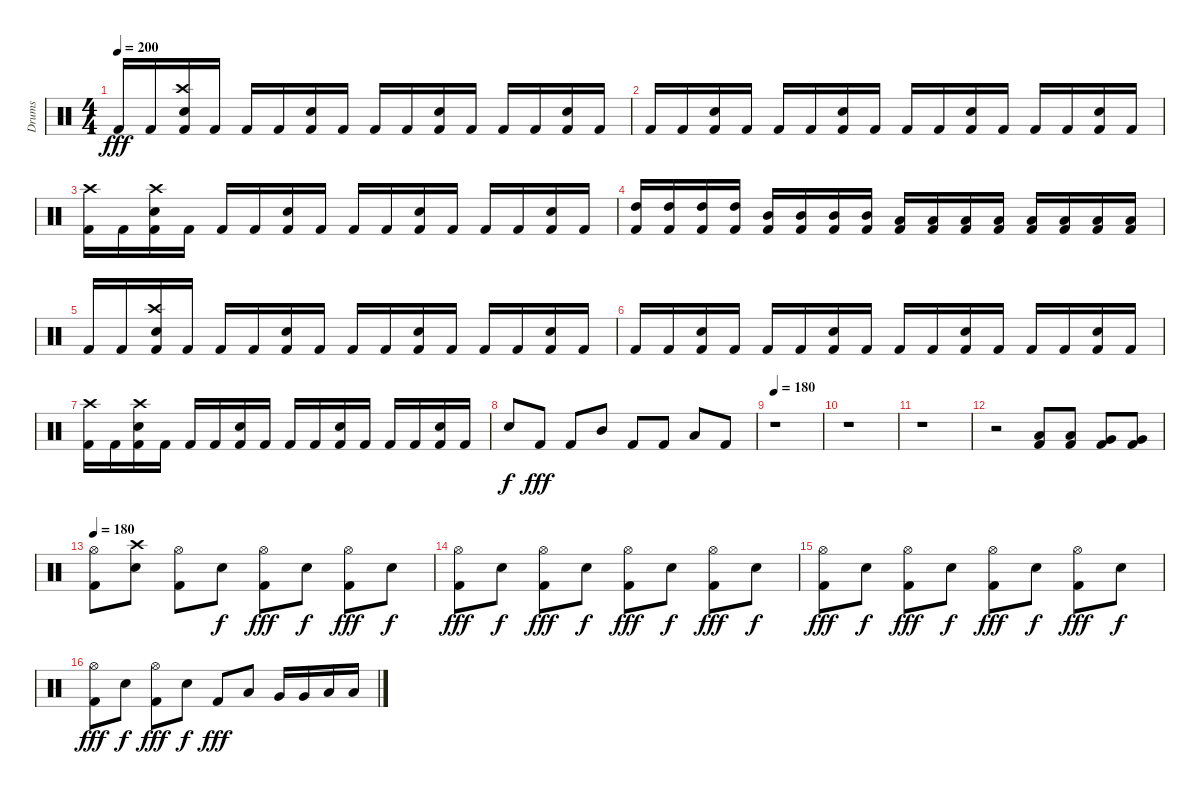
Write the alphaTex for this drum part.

\track ("Drums" "Drums") {instrument percussion}
\staff {score}
\articulation defaults
\ts (4 4)
\tempo 200
\clef neutral
\ks c "Kick (hit) 2".16{dy fff} "Kick (hit) 2".16
("Crash high (hit)" "Snare (hit) 2" "Kick (hit) 2").16 "Kick (hit) 2".16 "Kick (hit) 2".16 "Kick (hit) 2".16 ("Snare (hit) 2" "Kick (hit) 2").16 "Kick (hit) 2".16 "Kick (hit) 2".16 "Kick (hit) 2".16 ("Snare (hit) 2" "Kick (hit) 2").16 "Kick (hit) 2".16 "Kick (hit) 2".16 "Kick (hit) 2".16 ("Snare (hit) 2" "Kick (hit) 2").16 "Kick (hit) 2".16 |
"Kick (hit) 2".16 "Kick (hit) 2".16 ("Snare (hit) 2" "Kick (hit) 2").16 "Kick (hit) 2".16 "Kick (hit) 2".16 "Kick (hit) 2".16 ("Snare (hit) 2" "Kick (hit) 2").16 "Kick (hit) 2".16 "Kick (hit) 2".16 "Kick (hit) 2".16 ("Snare (hit) 2" "Kick (hit) 2").16 "Kick (hit) 2".16 "Kick (hit) 2".16 "Kick (hit) 2".16 ("Snare (hit) 2" "Kick (hit) 2").16 "Kick (hit) 2".16 |
("Crash high (hit)" "Kick (hit) 2").16 "Kick (hit) 2".16 ("Crash high (hit)" "Snare (hit) 2" "Kick (hit) 2").16 "Kick (hit) 2".16 "Kick (hit) 2".16 "Kick (hit) 2".16 ("Snare (hit) 2" "Kick (hit) 2").16 "Kick (hit) 2".16 "Kick (hit) 2".16 "Kick (hit) 2".16 ("Snare (hit) 2" "Kick (hit) 2").16 "Kick (hit) 2".16 "Kick (hit) 2".16 "Kick (hit) 2".16 ("Snare (hit) 2" "Kick (hit) 2").16 "Kick (hit) 2".16 |
("High Tom (hit)" "Kick (hit) 2").16 ("High Tom (hit)" "Kick (hit) 2").16 ("High Tom (hit)" "Kick (hit) 2").16 ("High Tom (hit)" "Kick (hit) 2").16 ("Mid Tom (hit)" "Kick (hit) 2").16 ("Mid Tom (hit)" "Kick (hit) 2").16 ("Mid Tom (hit)" "Kick (hit) 2").16 ("Mid Tom (hit)" "Kick (hit) 2").16 ("Low Tom (hit)" "Kick (hit) 2").16 ("Low Tom (hit)" "Kick (hit) 2").16 ("Low Tom (hit)" "Kick (hit) 2").16 ("Low Tom (hit)" "Kick (hit) 2").16 ("Low Floor Tom (hit)" "Kick (hit) 2").16 ("Low Floor Tom (hit)" "Kick (hit) 2").16 ("Low Floor Tom (hit)" "Kick (hit) 2").16 ("Low Floor Tom (hit)" "Kick (hit) 2").16 |
"Kick (hit) 2".16 "Kick (hit) 2".16 ("Crash high (hit)" "Snare (hit) 2" "Kick (hit) 2").16 "Kick (hit) 2".16 "Kick (hit) 2".16 "Kick (hit) 2".16 ("Snare (hit) 2" "Kick (hit) 2").16 "Kick (hit) 2".16 "Kick (hit) 2".16 "Kick (hit) 2".16 ("Snare (hit) 2" "Kick (hit) 2").16 "Kick (hit) 2".16 "Kick (hit) 2".16 "Kick (hit) 2".16 ("Snare (hit) 2" "Kick (hit) 2").16 "Kick (hit) 2".16 |
"Kick (hit) 2".16 "Kick (hit) 2".16 ("Snare (hit) 2" "Kick (hit) 2").16 "Kick (hit) 2".16 "Kick (hit) 2".16 "Kick (hit) 2".16 ("Snare (hit) 2" "Kick (hit) 2").16 "Kick (hit) 2".16 "Kick (hit) 2".16 "Kick (hit) 2".16 ("Snare (hit) 2" "Kick (hit) 2").16 "Kick (hit) 2".16 "Kick (hit) 2".16 "Kick (hit) 2".16 ("Snare (hit) 2" "Kick (hit) 2").16 "Kick (hit) 2".16 |
("Crash high (hit)" "Kick (hit) 2").16 "Kick (hit) 2".16 ("Crash high (hit)" "Snare (hit) 2" "Kick (hit) 2").16 "Kick (hit) 2".16 "Kick (hit) 2".16 "Kick (hit) 2".16 ("Snare (hit) 2" "Kick (hit) 2").16 "Kick (hit) 2".16 "Kick (hit) 2".16 "Kick (hit) 2".16 ("Snare (hit) 2" "Kick (hit) 2").16 "Kick (hit) 2".16 "Kick (hit) 2".16 "Kick (hit) 2".16 ("Snare (hit) 2" "Kick (hit) 2").16 "Kick (hit) 2".16 |
"Snare (hit) 2".8{dy f} "Kick (hit) 2".8{dy fff} "Kick (hit) 2".8 "Mid Tom (hit)".8 "Kick (hit) 2".8 "Kick (hit) 2".8 "Low Tom (hit)".8 "Kick (hit) 2".8 |
\tempo 180
r.1 |
r.1 |
r.1 |
r.2 ("Low Tom (hit)" "Kick (hit) 2").8 ("Low Tom (hit)" "Kick (hit) 2").8 ("Very Low Tom (hit)" "Kick (hit) 2").8 ("Very Low Tom (hit)" "Kick (hit) 2").8 |
\tempo 180
("Hi-Hat (open)" "Kick (hit) 2").8 ("Crash high (hit)" "Snare (hit) 2").8 ("Hi-Hat (open)" "Kick (hit) 2").8 "Snare (hit) 2".8{dy f} ("Hi-Hat (open)" "Kick (hit) 2").8{dy fff} "Snare (hit) 2".8{dy f} ("Hi-Hat (open)" "Kick (hit) 2").8{dy fff} "Snare (hit) 2".8{dy f} |
("Hi-Hat (open)" "Kick (hit) 2").8{dy fff} "Snare (hit) 2".8{dy f} ("Hi-Hat (open)" "Kick (hit) 2").8{dy fff} "Snare (hit) 2".8{dy f} ("Hi-Hat (open)" "Kick (hit) 2").8{dy fff} "Snare (hit) 2".8{dy f} ("Hi-Hat (open)" "Kick (hit) 2").8{dy fff} "Snare (hit) 2".8{dy f} |
("Hi-Hat (open)" "Kick (hit) 2").8{dy fff} "Snare (hit) 2".8{dy f} ("Hi-Hat (open)" "Kick (hit) 2").8{dy fff} "Snare (hit) 2".8{dy f} ("Hi-Hat (open)" "Kick (hit) 2").8{dy fff} "Snare (hit) 2".8{dy f} ("Hi-Hat (open)" "Kick (hit) 2").8{dy fff} "Snare (hit) 2".8{dy f} |
("Hi-Hat (open)" "Kick (hit) 2").8{dy fff} "Snare (hit) 2".8{dy f} ("Hi-Hat (open)" "Kick (hit) 2").8{dy fff} "Snare (hit) 2".8{dy f} "Kick (hit) 2".8{dy fff} "Low Tom (hit)".8 "Very Low Tom (hit)".16 "Very Low Tom (hit)".16 "Low Floor Tom (hit)".16 "Low Floor Tom (hit)".16
